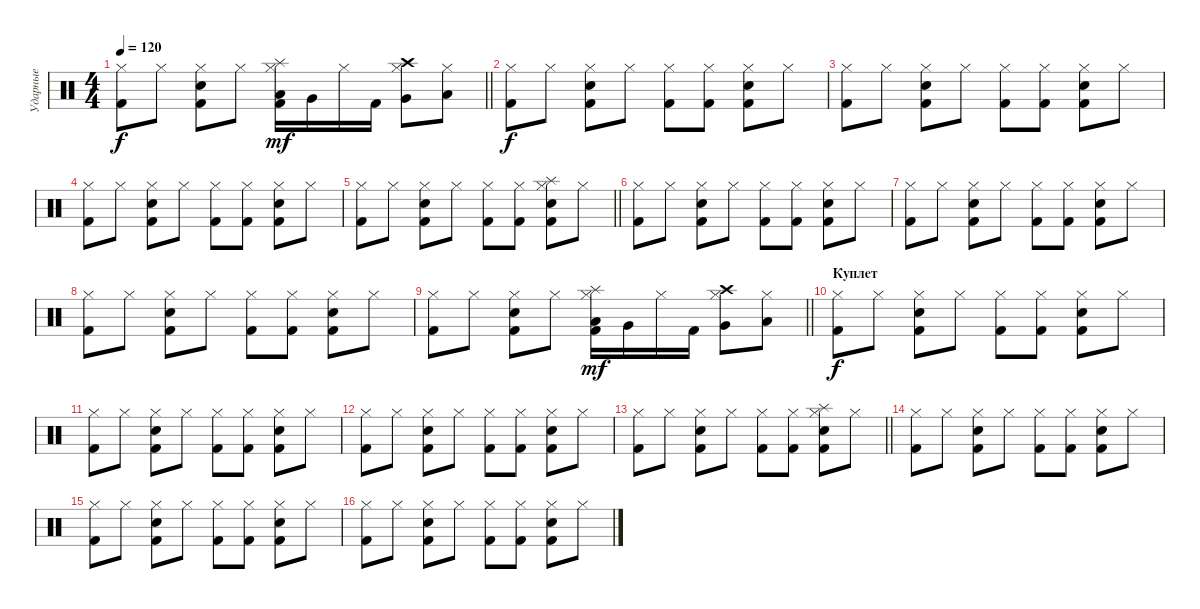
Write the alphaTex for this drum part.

\track ("Ударные" "Ударные") {instrument percussion}
\staff {score}
\articulation defaults
\ts (4 4)
\tempo 120
\clef neutral
\barLineRight lightlight
\ks c
("Hi-Hat (closed)" "Kick (hit) 2").8{dy f} "Hi-Hat (closed)".8 ("Hi-Hat (closed)" "Kick (hit) 2" "Electric Snare (hit)").8 "Hi-Hat (closed)".8 ("Low Tom (hit)" "Hi-Hat (closed)" "Kick (hit) 2" "Splash (hit)").16{dy mf} "Very Low Tom (hit)".16 "Hi-Hat (closed)".16 "Kick (hit) 2".16 ("Very Low Tom (hit)" "Hi-Hat (closed)" "Crash high (hit)").8 ("Low Floor Tom (hit)" "Hi-Hat (closed)").8 |
("Hi-Hat (closed)" "Kick (hit) 2").8{dy f} "Hi-Hat (closed)".8 ("Hi-Hat (closed)" "Kick (hit) 2" "Electric Snare (hit)").8 "Hi-Hat (closed)".8 ("Hi-Hat (closed)" "Kick (hit) 2").8 ("Hi-Hat (closed)" "Kick (hit) 2").8 ("Hi-Hat (closed)" "Kick (hit) 2" "Electric Snare (hit)").8 "Hi-Hat (closed)".8 |
("Hi-Hat (closed)" "Kick (hit) 2").8 "Hi-Hat (closed)".8 ("Hi-Hat (closed)" "Kick (hit) 2" "Electric Snare (hit)").8 "Hi-Hat (closed)".8 ("Hi-Hat (closed)" "Kick (hit) 2").8 ("Hi-Hat (closed)" "Kick (hit) 2").8 ("Hi-Hat (closed)" "Kick (hit) 2" "Electric Snare (hit)").8 "Hi-Hat (closed)".8 |
("Hi-Hat (closed)" "Kick (hit) 2").8 "Hi-Hat (closed)".8 ("Hi-Hat (closed)" "Kick (hit) 2" "Electric Snare (hit)").8 "Hi-Hat (closed)".8 ("Hi-Hat (closed)" "Kick (hit) 2").8 ("Hi-Hat (closed)" "Kick (hit) 2").8 ("Hi-Hat (closed)" "Kick (hit) 2" "Electric Snare (hit)").8 "Hi-Hat (closed)".8 |
\barLineRight lightlight
("Hi-Hat (closed)" "Kick (hit) 2").8 "Hi-Hat (closed)".8 ("Hi-Hat (closed)" "Kick (hit) 2" "Electric Snare (hit)").8 "Hi-Hat (closed)".8 ("Hi-Hat (closed)" "Kick (hit) 2").8 ("Hi-Hat (closed)" "Kick (hit) 2").8 ("Hi-Hat (closed)" "Kick (hit) 2" "Electric Snare (hit)" "Splash (hit)").8 "Hi-Hat (closed)".8 |
("Hi-Hat (closed)" "Kick (hit) 2").8 "Hi-Hat (closed)".8 ("Hi-Hat (closed)" "Kick (hit) 2" "Electric Snare (hit)").8 "Hi-Hat (closed)".8 ("Hi-Hat (closed)" "Kick (hit) 2").8 ("Hi-Hat (closed)" "Kick (hit) 2").8 ("Hi-Hat (closed)" "Kick (hit) 2" "Electric Snare (hit)").8 "Hi-Hat (closed)".8 |
("Hi-Hat (closed)" "Kick (hit) 2").8 "Hi-Hat (closed)".8 ("Hi-Hat (closed)" "Kick (hit) 2" "Electric Snare (hit)").8 "Hi-Hat (closed)".8 ("Hi-Hat (closed)" "Kick (hit) 2").8 ("Hi-Hat (closed)" "Kick (hit) 2").8 ("Hi-Hat (closed)" "Kick (hit) 2" "Electric Snare (hit)").8 "Hi-Hat (closed)".8 |
("Hi-Hat (closed)" "Kick (hit) 2").8 "Hi-Hat (closed)".8 ("Hi-Hat (closed)" "Kick (hit) 2" "Electric Snare (hit)").8 "Hi-Hat (closed)".8 ("Hi-Hat (closed)" "Kick (hit) 2").8 ("Hi-Hat (closed)" "Kick (hit) 2").8 ("Hi-Hat (closed)" "Kick (hit) 2" "Electric Snare (hit)").8 "Hi-Hat (closed)".8 |
\barLineRight lightlight
("Hi-Hat (closed)" "Kick (hit) 2").8 "Hi-Hat (closed)".8 ("Hi-Hat (closed)" "Kick (hit) 2" "Electric Snare (hit)").8 "Hi-Hat (closed)".8 ("Low Tom (hit)" "Hi-Hat (closed)" "Kick (hit) 2" "Splash (hit)").16{dy mf} "Very Low Tom (hit)".16 "Hi-Hat (closed)".16 "Kick (hit) 2".16 ("Very Low Tom (hit)" "Hi-Hat (closed)" "Crash high (hit)").8 ("Low Floor Tom (hit)" "Hi-Hat (closed)").8 |
\section ("" "Куплет")
("Hi-Hat (closed)" "Kick (hit) 2").8{dy f} "Hi-Hat (closed)".8 ("Hi-Hat (closed)" "Kick (hit) 2" "Electric Snare (hit)").8 "Hi-Hat (closed)".8 ("Hi-Hat (closed)" "Kick (hit) 2").8 ("Hi-Hat (closed)" "Kick (hit) 2").8 ("Hi-Hat (closed)" "Kick (hit) 2" "Electric Snare (hit)").8 "Hi-Hat (closed)".8 |
("Hi-Hat (closed)" "Kick (hit) 2").8 "Hi-Hat (closed)".8 ("Hi-Hat (closed)" "Kick (hit) 2" "Electric Snare (hit)").8 "Hi-Hat (closed)".8 ("Hi-Hat (closed)" "Kick (hit) 2").8 ("Hi-Hat (closed)" "Kick (hit) 2").8 ("Hi-Hat (closed)" "Kick (hit) 2" "Electric Snare (hit)").8 "Hi-Hat (closed)".8 |
("Hi-Hat (closed)" "Kick (hit) 2").8 "Hi-Hat (closed)".8 ("Hi-Hat (closed)" "Kick (hit) 2" "Electric Snare (hit)").8 "Hi-Hat (closed)".8 ("Hi-Hat (closed)" "Kick (hit) 2").8 ("Hi-Hat (closed)" "Kick (hit) 2").8 ("Hi-Hat (closed)" "Kick (hit) 2" "Electric Snare (hit)").8 "Hi-Hat (closed)".8 |
\barLineRight lightlight
("Hi-Hat (closed)" "Kick (hit) 2").8 "Hi-Hat (closed)".8 ("Hi-Hat (closed)" "Kick (hit) 2" "Electric Snare (hit)").8 "Hi-Hat (closed)".8 ("Hi-Hat (closed)" "Kick (hit) 2").8 ("Hi-Hat (closed)" "Kick (hit) 2").8 ("Hi-Hat (closed)" "Kick (hit) 2" "Electric Snare (hit)" "Splash (hit)").8 "Hi-Hat (closed)".8 |
("Hi-Hat (closed)" "Kick (hit) 2").8 "Hi-Hat (closed)".8 ("Hi-Hat (closed)" "Kick (hit) 2" "Electric Snare (hit)").8 "Hi-Hat (closed)".8 ("Hi-Hat (closed)" "Kick (hit) 2").8 ("Hi-Hat (closed)" "Kick (hit) 2").8 ("Hi-Hat (closed)" "Kick (hit) 2" "Electric Snare (hit)").8 "Hi-Hat (closed)".8 |
("Hi-Hat (closed)" "Kick (hit) 2").8 "Hi-Hat (closed)".8 ("Hi-Hat (closed)" "Kick (hit) 2" "Electric Snare (hit)").8 "Hi-Hat (closed)".8 ("Hi-Hat (closed)" "Kick (hit) 2").8 ("Hi-Hat (closed)" "Kick (hit) 2").8 ("Hi-Hat (closed)" "Kick (hit) 2" "Electric Snare (hit)").8 "Hi-Hat (closed)".8 |
("Hi-Hat (closed)" "Kick (hit) 2").8 "Hi-Hat (closed)".8 ("Hi-Hat (closed)" "Kick (hit) 2" "Electric Snare (hit)").8 "Hi-Hat (closed)".8 ("Hi-Hat (closed)" "Kick (hit) 2").8 ("Hi-Hat (closed)" "Kick (hit) 2").8 ("Hi-Hat (closed)" "Kick (hit) 2" "Electric Snare (hit)").8 "Hi-Hat (closed)".8
